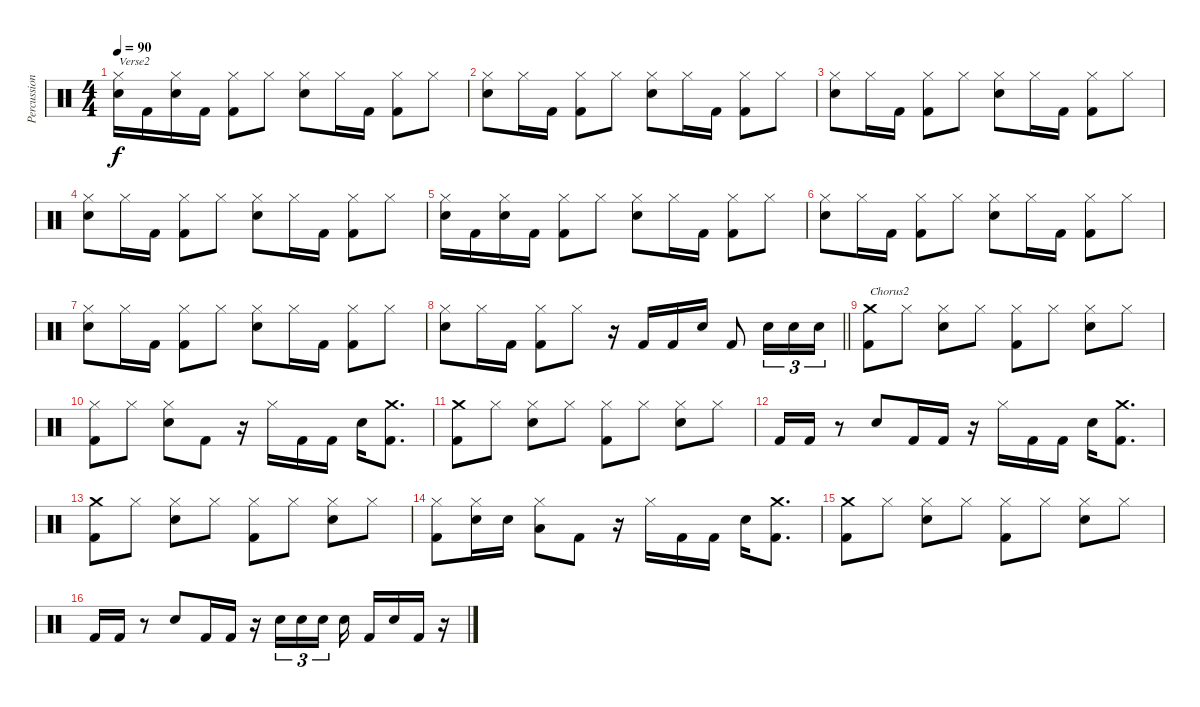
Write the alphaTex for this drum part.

\track ("Percussion" "Percussion") {instrument percussion}
\staff {score}
\articulation defaults
\ts (4 4)
\tempo 90
\clef neutral
\ks c
("Hi-Hat (closed)" "Snare (hit) 2").16{txt "Verse2" dy f} "Kick (hit) 2".16 ("Hi-Hat (closed)" "Snare (hit) 2").16 "Kick (hit) 2".16 ("Hi-Hat (closed)" "Kick (hit) 2").8 "Hi-Hat (closed)".8 ("Hi-Hat (closed)" "Snare (hit) 2").8 "Hi-Hat (closed)".16 "Kick (hit) 2".16 ("Hi-Hat (closed)" "Kick (hit) 2").8 "Hi-Hat (closed)".8 |
("Hi-Hat (closed)" "Snare (hit) 2").8 "Hi-Hat (closed)".16 "Kick (hit) 2".16 ("Hi-Hat (closed)" "Kick (hit) 2").8 "Hi-Hat (closed)".8 ("Hi-Hat (closed)" "Snare (hit) 2").8 "Hi-Hat (closed)".16 "Kick (hit) 2".16 ("Hi-Hat (closed)" "Kick (hit) 2").8 "Hi-Hat (closed)".8 |
("Hi-Hat (closed)" "Snare (hit) 2").8 "Hi-Hat (closed)".16 "Kick (hit) 2".16 ("Hi-Hat (closed)" "Kick (hit) 2").8 "Hi-Hat (closed)".8 ("Hi-Hat (closed)" "Snare (hit) 2").8 "Hi-Hat (closed)".16 "Kick (hit) 2".16 ("Hi-Hat (closed)" "Kick (hit) 2").8 "Hi-Hat (closed)".8 |
("Hi-Hat (closed)" "Snare (hit) 2").8 "Hi-Hat (closed)".16 "Kick (hit) 2".16 ("Hi-Hat (closed)" "Kick (hit) 2").8 "Hi-Hat (closed)".8 ("Hi-Hat (closed)" "Snare (hit) 2").8 "Hi-Hat (closed)".16 "Kick (hit) 2".16 ("Hi-Hat (closed)" "Kick (hit) 2").8 "Hi-Hat (closed)".8 |
("Hi-Hat (closed)" "Snare (hit) 2").16 "Kick (hit) 2".16 ("Hi-Hat (closed)" "Snare (hit) 2").16 "Kick (hit) 2".16 ("Hi-Hat (closed)" "Kick (hit) 2").8 "Hi-Hat (closed)".8 ("Hi-Hat (closed)" "Snare (hit) 2").8 "Hi-Hat (closed)".16 "Kick (hit) 2".16 ("Hi-Hat (closed)" "Kick (hit) 2").8 "Hi-Hat (closed)".8 |
("Hi-Hat (closed)" "Snare (hit) 2").8 "Hi-Hat (closed)".16 "Kick (hit) 2".16 ("Hi-Hat (closed)" "Kick (hit) 2").8 "Hi-Hat (closed)".8 ("Hi-Hat (closed)" "Snare (hit) 2").8 "Hi-Hat (closed)".16 "Kick (hit) 2".16 ("Hi-Hat (closed)" "Kick (hit) 2").8 "Hi-Hat (closed)".8 |
("Hi-Hat (closed)" "Snare (hit) 2").8 "Hi-Hat (closed)".16 "Kick (hit) 2".16 ("Hi-Hat (closed)" "Kick (hit) 2").8 "Hi-Hat (closed)".8 ("Hi-Hat (closed)" "Snare (hit) 2").8 "Hi-Hat (closed)".16 "Kick (hit) 2".16 ("Hi-Hat (closed)" "Kick (hit) 2").8 "Hi-Hat (closed)".8 |
\barLineRight lightlight
("Hi-Hat (closed)" "Snare (hit) 2").8 "Hi-Hat (closed)".16 "Kick (hit) 2".16 ("Hi-Hat (closed)" "Kick (hit) 2").8 "Hi-Hat (closed)".8 r.16 "Kick (hit) 2".16 "Kick (hit) 2".16 "Snare (hit) 2".16 "Kick (hit) 2".8 "Snare (hit) 2".16{tu (3 2)} "Snare (hit) 2".16{tu (3 2)} "Snare (hit) 2".16{tu (3 2)} |
("Crash medium (hit)" "Kick (hit) 2").8{txt "Chorus2"} "Hi-Hat (closed)".8 ("Hi-Hat (closed)" "Snare (hit) 2").8 "Hi-Hat (closed)".8 ("Hi-Hat (closed)" "Kick (hit) 2").8 "Hi-Hat (closed)".8 ("Hi-Hat (closed)" "Snare (hit) 2").8 "Hi-Hat (closed)".8 |
("Hi-Hat (closed)" "Kick (hit) 2").8 "Hi-Hat (closed)".8 ("Hi-Hat (closed)" "Snare (hit) 2").8 "Kick (hit) 2".8 r.16 "Hi-Hat (closed)".16 "Kick (hit) 2".16 "Kick (hit) 2".16 "Snare (hit) 2".16 ("Crash medium (hit)" "Kick (hit) 2").8{d} |
("Crash medium (hit)" "Kick (hit) 2").8 "Hi-Hat (closed)".8 ("Hi-Hat (closed)" "Snare (hit) 2").8 "Hi-Hat (closed)".8 ("Hi-Hat (closed)" "Kick (hit) 2").8 "Hi-Hat (closed)".8 ("Hi-Hat (closed)" "Snare (hit) 2").8 "Hi-Hat (closed)".8 |
"Kick (hit) 2".16 "Kick (hit) 2".16 r.8 "Snare (hit) 2".8 "Kick (hit) 2".16 "Kick (hit) 2".16 r.16 "Hi-Hat (closed)".16 "Kick (hit) 2".16 "Kick (hit) 2".16 "Snare (hit) 2".16 ("Crash medium (hit)" "Kick (hit) 2").8{d} |
("Crash medium (hit)" "Kick (hit) 2").8 "Hi-Hat (closed)".8 ("Hi-Hat (closed)" "Snare (hit) 2").8 "Hi-Hat (closed)".8 ("Hi-Hat (closed)" "Kick (hit) 2").8 "Hi-Hat (closed)".8 ("Hi-Hat (closed)" "Snare (hit) 2").8 "Hi-Hat (closed)".8 |
("Hi-Hat (closed)" "Kick (hit) 2").8 ("Hi-Hat (closed)" "Snare (hit) 2").16 "Snare (hit) 2".16 ("Hi-Hat (closed)" "Low Floor Tom (hit)").8 "Kick (hit) 2".8 r.16 "Hi-Hat (closed)".16 "Kick (hit) 2".16 "Kick (hit) 2".16 "Snare (hit) 2".16 ("Crash medium (hit)" "Kick (hit) 2").8{d} |
("Crash medium (hit)" "Kick (hit) 2").8 "Hi-Hat (closed)".8 ("Hi-Hat (closed)" "Snare (hit) 2").8 "Hi-Hat (closed)".8 ("Hi-Hat (closed)" "Kick (hit) 2").8 "Hi-Hat (closed)".8 ("Hi-Hat (closed)" "Snare (hit) 2").8 "Hi-Hat (closed)".8 |
"Kick (hit) 2".16 "Kick (hit) 2".16 r.8 "Snare (hit) 2".8 "Kick (hit) 2".16 "Kick (hit) 2".16 r.16 "Snare (hit) 2".16{tu (3 2)} "Snare (hit) 2".16{tu (3 2)} "Snare (hit) 2".16{tu (3 2) beam splitsecondary} "Snare (hit) 2".16 "Kick (hit) 2".16 "Snare (hit) 2".16 "Kick (hit) 2".16 r.16
